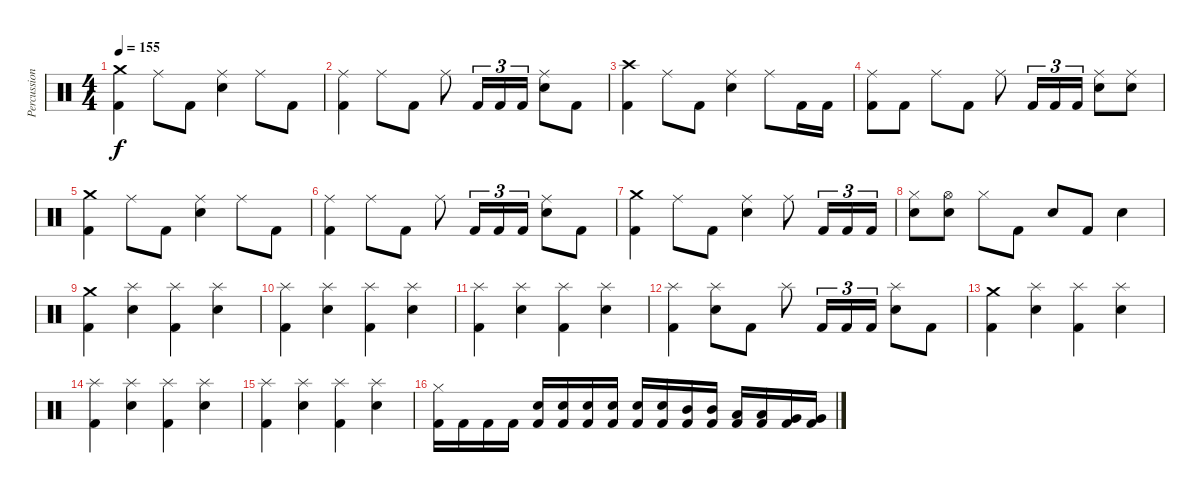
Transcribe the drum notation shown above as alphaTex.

\track ("Percussion" "Percussion") {instrument percussion}
\staff {score}
\articulation defaults
\ts (4 4)
\tempo 155
\clef neutral
\ks c
("Crash medium (hit)" "Kick (hit) 2").4{dy f} "Ride (middle)".8 "Kick (hit) 2".8 ("Ride (middle)" "Electric Snare (hit)").4 "Ride (middle)".8 "Kick (hit) 2".8 |
("Ride (middle)" "Kick (hit) 2").4 "Ride (middle)".8 "Kick (hit) 2".8 "Ride (middle)".8 "Kick (hit) 2".16{tu (3 2)} "Kick (hit) 2".16{tu (3 2)} "Kick (hit) 2".16{tu (3 2)} ("Ride (middle)" "Electric Snare (hit)").8 "Kick (hit) 2".8 |
("Crash high (hit)" "Kick (hit) 2").4 "Ride (middle)".8 "Kick (hit) 2".8 ("Ride (middle)" "Electric Snare (hit)").4 "Ride (middle)".8 "Kick (hit) 2".16 "Kick (hit) 2".16 |
("Ride (middle)" "Kick (hit) 2").8 "Kick (hit) 2".8 "Ride (middle)".8 "Kick (hit) 2".8 "Ride (middle)".8 "Kick (hit) 2".16{tu (3 2)} "Kick (hit) 2".16{tu (3 2)} "Kick (hit) 2".16{tu (3 2)} ("Ride (middle)" "Electric Snare (hit)").8 ("Ride (middle)" "Electric Snare (hit)").8 |
("Crash medium (hit)" "Kick (hit) 2").4 "Ride (middle)".8 "Kick (hit) 2".8 ("Ride (middle)" "Electric Snare (hit)").4 "Ride (middle)".8 "Kick (hit) 2".8 |
("Ride (middle)" "Kick (hit) 2").4 "Ride (middle)".8 "Kick (hit) 2".8 "Ride (middle)".8 "Kick (hit) 2".16{tu (3 2)} "Kick (hit) 2".16{tu (3 2)} "Kick (hit) 2".16{tu (3 2)} ("Ride (middle)" "Electric Snare (hit)").8 "Kick (hit) 2".8 |
("Crash medium (hit)" "Kick (hit) 2").4 "Ride (middle)".8 "Kick (hit) 2".8 ("Ride (middle)" "Electric Snare (hit)").4 "Ride (middle)".8 "Kick (hit) 2".16{tu (3 2)} "Kick (hit) 2".16{tu (3 2)} "Kick (hit) 2".16{tu (3 2)} |
("Hi-Hat (closed)" "Electric Snare (hit)").8 ("Hi-Hat (open)" "Electric Snare (hit)").8 "Hi-Hat (closed)".8 "Kick (hit) 2".8 "Electric Snare (hit)".8 "Kick (hit) 2".8 "Electric Snare (hit)".4 |
("Crash medium (hit)" "Kick (hit) 2").4 ("Splash (hit)" "Electric Snare (hit)").4 ("Splash (hit)" "Kick (hit) 2").4 ("Splash (hit)" "Electric Snare (hit)").4 |
("Splash (hit)" "Kick (hit) 2").4 ("Splash (hit)" "Electric Snare (hit)").4 ("Splash (hit)" "Kick (hit) 2").4 ("Splash (hit)" "Electric Snare (hit)").4 |
("Splash (hit)" "Kick (hit) 2").4 ("Splash (hit)" "Electric Snare (hit)").4 ("Splash (hit)" "Kick (hit) 2").4 ("Splash (hit)" "Electric Snare (hit)").4 |
("Splash (hit)" "Kick (hit) 2").4 ("Splash (hit)" "Electric Snare (hit)").8 "Kick (hit) 2".8 "Splash (hit)".8 "Kick (hit) 2".16{tu (3 2)} "Kick (hit) 2".16{tu (3 2)} "Kick (hit) 2".16{tu (3 2)} ("Splash (hit)" "Electric Snare (hit)").8 "Kick (hit) 2".8 |
("Crash medium (hit)" "Kick (hit) 2").4 ("Splash (hit)" "Electric Snare (hit)").4 ("Splash (hit)" "Kick (hit) 2").4 ("Splash (hit)" "Electric Snare (hit)").4 |
("Splash (hit)" "Kick (hit) 2").4 ("Splash (hit)" "Electric Snare (hit)").4 ("Splash (hit)" "Kick (hit) 2").4 ("Splash (hit)" "Electric Snare (hit)").4 |
("Splash (hit)" "Kick (hit) 2").4 ("Splash (hit)" "Electric Snare (hit)").4 ("Splash (hit)" "Kick (hit) 2").4 ("Splash (hit)" "Electric Snare (hit)").4 |
("Hi-Hat (closed)" "Kick (hit) 2").16 "Kick (hit) 2".16 "Kick (hit) 2".16 "Kick (hit) 2".16 ("Electric Snare (hit)" "Kick (hit) 2").16 ("Electric Snare (hit)" "Kick (hit) 2").16 ("Electric Snare (hit)" "Kick (hit) 2").16 ("Electric Snare (hit)" "Kick (hit) 2").16 ("Electric Snare (hit)" "Kick (hit) 2").16 ("Electric Snare (hit)" "Kick (hit) 2").16 ("Mid Tom (hit)" "Kick (hit) 2").16 ("Mid Tom (hit)" "Kick (hit) 2").16 ("Low Tom (hit)" "Kick (hit) 2").16 ("Low Tom (hit)" "Kick (hit) 2").16 ("Very Low Tom (hit)" "Kick (hit) 2").16 ("Very Low Tom (hit)" "Kick (hit) 2").16
